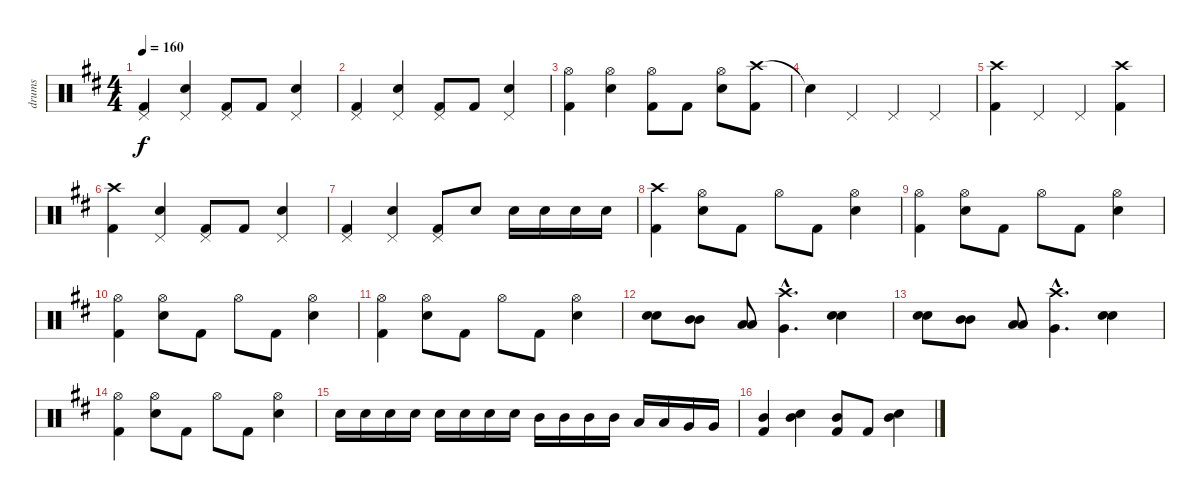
\track ("drums" "drums") {instrument percussion}
\staff {score}
\articulation defaults
\ts (4 4)
\tempo 160
\clef neutral
\ks bminor
("Pedal Hi-Hat (hit)" "Kick (hit) 2").4{dy f} ("Pedal Hi-Hat (hit)" "Snare (hit) 2").4 ("Pedal Hi-Hat (hit)" "Kick (hit) 2").8 "Kick (hit) 2".8 ("Pedal Hi-Hat (hit)" "Snare (hit) 2").4 |
("Pedal Hi-Hat (hit)" "Kick (hit) 2").4 ("Pedal Hi-Hat (hit)" "Snare (hit) 2").4 ("Pedal Hi-Hat (hit)" "Kick (hit) 2").8 "Kick (hit) 2".8 ("Pedal Hi-Hat (hit)" "Snare (hit) 2").4 |
("Hi-Hat (open)" "Kick (hit) 2").4 ("Hi-Hat (open)" "Snare (hit) 2").4 ("Hi-Hat (open)" "Kick (hit) 2").8 "Kick (hit) 2".8 ("Hi-Hat (open)" "Snare (hit) 2").8 ("Crash high (hit)" "Kick (hit) 2").8 |
"Snare (hit)"{t}.4 "Pedal Hi-Hat (hit)".4 "Pedal Hi-Hat (hit)".4 "Pedal Hi-Hat (hit)".4 |
("Crash high (hit)" "Kick (hit) 2").4 "Pedal Hi-Hat (hit)".4 "Pedal Hi-Hat (hit)".4 ("Crash high (hit)" "Kick (hit) 2").4 |
("Crash high (hit)" "Kick (hit) 2").4 ("Pedal Hi-Hat (hit)" "Snare (hit) 2").4 ("Pedal Hi-Hat (hit)" "Kick (hit) 2").8 "Kick (hit) 2".8 ("Pedal Hi-Hat (hit)" "Snare (hit) 2").4 |
("Pedal Hi-Hat (hit)" "Kick (hit) 2").4 ("Pedal Hi-Hat (hit)" "Snare (hit) 2").4 ("Pedal Hi-Hat (hit)" "Kick (hit) 2").8 "Snare (hit) 2".8 "Snare (hit) 2".16 "Snare (hit) 2".16 "Snare (hit) 2".16 "Snare (hit) 2".16 |
("Crash high (hit)" "Kick (hit) 2").4 ("Hi-Hat (open)" "Snare (hit) 2").8 "Kick (hit) 2".8 "Hi-Hat (open)".8 "Kick (hit) 2".8 ("Hi-Hat (open)" "Snare (hit) 2").4 |
("Hi-Hat (open)" "Kick (hit) 2").4 ("Hi-Hat (open)" "Snare (hit) 2").8 "Kick (hit) 2".8 "Hi-Hat (open)".8 "Kick (hit) 2".8 ("Hi-Hat (open)" "Snare (hit) 2").4 |
("Hi-Hat (open)" "Kick (hit) 2").4 ("Hi-Hat (open)" "Snare (hit) 2").8 "Kick (hit) 2".8 "Hi-Hat (open)".8 "Kick (hit) 2".8 ("Hi-Hat (open)" "Snare (hit) 2").4 |
("Hi-Hat (open)" "Kick (hit) 2").4 ("Hi-Hat (open)" "Snare (hit) 2").8 "Kick (hit) 2".8 "Hi-Hat (open)".8 "Kick (hit) 2".8 ("Hi-Hat (open)" "Snare (hit) 2").4 |
("Snare (hit) 2" "Snare (hit) 2").8 ("Mid Tom (hit)" "Mid Tom (hit)").8 ("Low Tom (hit)" "Low Tom (hit)").8 ("Crash high (hit)"{hac} "Very Low Tom (hit)"{hac}).4{d} ("Snare (hit) 2" "Snare (hit) 2").4 |
("Snare (hit) 2" "Snare (hit) 2").8 ("Mid Tom (hit)" "Mid Tom (hit)").8 ("Low Tom (hit)" "Low Tom (hit)").8 ("Crash high (hit)"{hac} "Very Low Tom (hit)"{hac}).4{d} ("Snare (hit) 2" "Snare (hit) 2").4 |
("Hi-Hat (open)" "Kick (hit) 2").4 ("Hi-Hat (open)" "Snare (hit) 2").8 "Kick (hit) 2".8 "Hi-Hat (open)".8 "Kick (hit) 2".8 ("Hi-Hat (open)" "Snare (hit) 2").4 |
"Snare (hit) 2".16 "Snare (hit) 2".16 "Snare (hit) 2".16 "Snare (hit) 2".16 "Snare (hit) 2".16 "Snare (hit) 2".16 "Snare (hit) 2".16 "Snare (hit) 2".16 "Mid Tom (hit)".16 "Mid Tom (hit)".16 "Mid Tom (hit)".16 "Mid Tom (hit)".16 "Low Tom (hit)".16 "Low Tom (hit)".16 "Very Low Tom (hit)".16 "Very Low Tom (hit)".16 |
("Mid Tom (hit)" "Kick (hit) 2").4 ("Mid Tom (hit)" "Snare (hit) 2").4 ("Mid Tom (hit)" "Kick (hit) 2").8 "Kick (hit) 2".8 ("Mid Tom (hit)" "Snare (hit) 2").4
